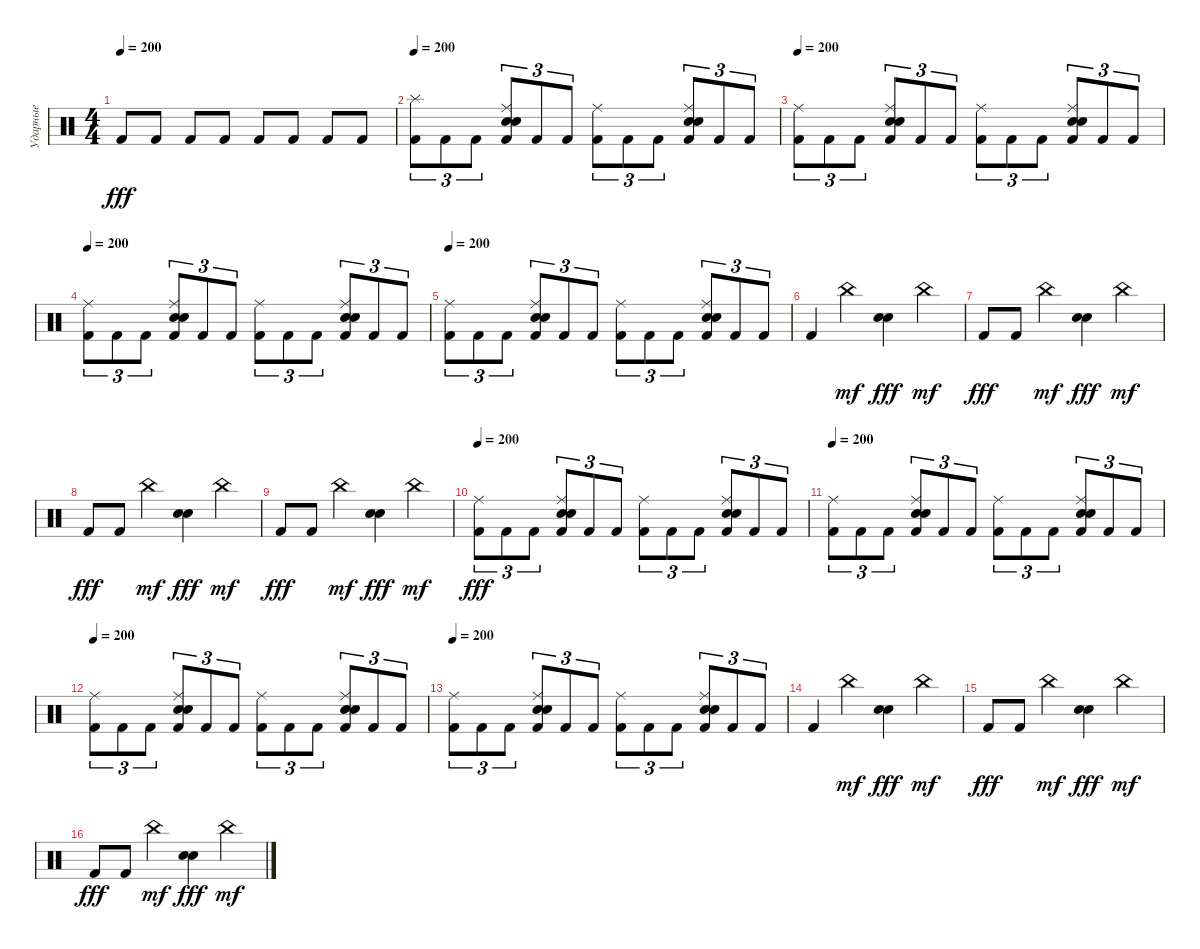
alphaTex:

\track ("Ударные" "Ударные") {instrument percussion}
\staff {score}
\articulation defaults
\ts (4 4)
\tempo 200
\clef neutral
\ks c "Kick (hit) 2".8{dy fff} "Kick (hit) 2".8 "Kick (hit) 2".8 "Kick (hit) 2".8 "Kick (hit) 2".8 "Kick (hit) 2".8 "Kick (hit) 2".8 "Kick (hit) 2".8
|
\tempo 200
("Splash (hit)" "Kick (hit) 2").8{tu (3 2)} "Kick (hit) 2".8{tu (3 2)} "Kick (hit) 2".8{tu (3 2)} ("Ride (middle)" "Snare (hit) 2" "Electric Snare (hit)" "Kick (hit) 2").8{tu (3 2)} "Kick (hit) 2".8{tu (3 2)} "Kick (hit) 2".8{tu (3 2)} ("Ride (middle)" "Kick (hit) 2").8{tu (3 2)} "Kick (hit) 2".8{tu (3 2)} "Kick (hit) 2".8{tu (3 2)} ("Ride (middle)" "Snare (hit) 2" "Electric Snare (hit)" "Kick (hit) 2").8{tu (3 2)} "Kick (hit) 2".8{tu (3 2)} "Kick (hit) 2".8{tu (3 2)} |
\tempo 200
("Ride (middle)" "Kick (hit) 2").8{tu (3 2)} "Kick (hit) 2".8{tu (3 2)} "Kick (hit) 2".8{tu (3 2)} ("Ride (middle)" "Snare (hit) 2" "Electric Snare (hit)" "Kick (hit) 2").8{tu (3 2)} "Kick (hit) 2".8{tu (3 2)} "Kick (hit) 2".8{tu (3 2)} ("Ride (middle)" "Kick (hit) 2").8{tu (3 2)} "Kick (hit) 2".8{tu (3 2)} "Kick (hit) 2".8{tu (3 2)} ("Ride (middle)" "Snare (hit) 2" "Electric Snare (hit)" "Kick (hit) 2").8{tu (3 2)} "Kick (hit) 2".8{tu (3 2)} "Kick (hit) 2".8{tu (3 2)} |
\tempo 200
("Ride (middle)" "Kick (hit) 2").8{tu (3 2)} "Kick (hit) 2".8{tu (3 2)} "Kick (hit) 2".8{tu (3 2)} ("Ride (middle)" "Snare (hit) 2" "Electric Snare (hit)" "Kick (hit) 2").8{tu (3 2)} "Kick (hit) 2".8{tu (3 2)} "Kick (hit) 2".8{tu (3 2)} ("Ride (middle)" "Kick (hit) 2").8{tu (3 2)} "Kick (hit) 2".8{tu (3 2)} "Kick (hit) 2".8{tu (3 2)} ("Ride (middle)" "Snare (hit) 2" "Electric Snare (hit)" "Kick (hit) 2").8{tu (3 2)} "Kick (hit) 2".8{tu (3 2)} "Kick (hit) 2".8{tu (3 2)} |
\tempo 200
("Ride (middle)" "Kick (hit) 2").8{tu (3 2)} "Kick (hit) 2".8{tu (3 2)} "Kick (hit) 2".8{tu (3 2)} ("Ride (middle)" "Snare (hit) 2" "Electric Snare (hit)" "Kick (hit) 2").8{tu (3 2)} "Kick (hit) 2".8{tu (3 2)} "Kick (hit) 2".8{tu (3 2)} ("Ride (middle)" "Kick (hit) 2").8{tu (3 2)} "Kick (hit) 2".8{tu (3 2)} "Kick (hit) 2".8{tu (3 2)} ("Ride (middle)" "Snare (hit) 2" "Electric Snare (hit)" "Kick (hit) 2").8{tu (3 2)} "Kick (hit) 2".8{tu (3 2)} "Kick (hit) 2".8{tu (3 2)} |
"Kick (hit) 2".4 "China (hit)".4{dy mf} ("Snare (hit) 2" "Electric Snare (hit)").4{dy fff} "China (hit)".4{dy mf} |
"Kick (hit) 2".8{dy fff} "Kick (hit) 2".8 "China (hit)".4{dy mf} ("Snare (hit) 2" "Electric Snare (hit)").4{dy fff} "China (hit)".4{dy mf} |
"Kick (hit) 2".8{dy fff} "Kick (hit) 2".8 "China (hit)".4{dy mf} ("Snare (hit) 2" "Electric Snare (hit)").4{dy fff} "China (hit)".4{dy mf} |
"Kick (hit) 2".8{dy fff} "Kick (hit) 2".8 "China (hit)".4{dy mf} ("Snare (hit) 2" "Electric Snare (hit)").4{dy fff} "China (hit)".4{dy mf} |
\tempo 200
("Ride (middle)" "Kick (hit) 2").8{tu (3 2) dy fff} "Kick (hit) 2".8{tu (3 2)} "Kick (hit) 2".8{tu (3 2)} ("Ride (middle)" "Snare (hit) 2" "Electric Snare (hit)" "Kick (hit) 2").8{tu (3 2)} "Kick (hit) 2".8{tu (3 2)} "Kick (hit) 2".8{tu (3 2)} ("Ride (middle)" "Kick (hit) 2").8{tu (3 2)} "Kick (hit) 2".8{tu (3 2)} "Kick (hit) 2".8{tu (3 2)} ("Ride (middle)" "Snare (hit) 2" "Electric Snare (hit)" "Kick (hit) 2").8{tu (3 2)} "Kick (hit) 2".8{tu (3 2)} "Kick (hit) 2".8{tu (3 2)} |
\tempo 200
("Ride (middle)" "Kick (hit) 2").8{tu (3 2)} "Kick (hit) 2".8{tu (3 2)} "Kick (hit) 2".8{tu (3 2)} ("Ride (middle)" "Snare (hit) 2" "Electric Snare (hit)" "Kick (hit) 2").8{tu (3 2)} "Kick (hit) 2".8{tu (3 2)} "Kick (hit) 2".8{tu (3 2)} ("Ride (middle)" "Kick (hit) 2").8{tu (3 2)} "Kick (hit) 2".8{tu (3 2)} "Kick (hit) 2".8{tu (3 2)} ("Ride (middle)" "Snare (hit) 2" "Electric Snare (hit)" "Kick (hit) 2").8{tu (3 2)} "Kick (hit) 2".8{tu (3 2)} "Kick (hit) 2".8{tu (3 2)} |
\tempo 200
("Ride (middle)" "Kick (hit) 2").8{tu (3 2)} "Kick (hit) 2".8{tu (3 2)} "Kick (hit) 2".8{tu (3 2)} ("Ride (middle)" "Snare (hit) 2" "Electric Snare (hit)" "Kick (hit) 2").8{tu (3 2)} "Kick (hit) 2".8{tu (3 2)} "Kick (hit) 2".8{tu (3 2)} ("Ride (middle)" "Kick (hit) 2").8{tu (3 2)} "Kick (hit) 2".8{tu (3 2)} "Kick (hit) 2".8{tu (3 2)} ("Ride (middle)" "Snare (hit) 2" "Electric Snare (hit)" "Kick (hit) 2").8{tu (3 2)} "Kick (hit) 2".8{tu (3 2)} "Kick (hit) 2".8{tu (3 2)} |
\tempo 200
("Ride (middle)" "Kick (hit) 2").8{tu (3 2)} "Kick (hit) 2".8{tu (3 2)} "Kick (hit) 2".8{tu (3 2)} ("Ride (middle)" "Snare (hit) 2" "Electric Snare (hit)" "Kick (hit) 2").8{tu (3 2)} "Kick (hit) 2".8{tu (3 2)} "Kick (hit) 2".8{tu (3 2)} ("Ride (middle)" "Kick (hit) 2").8{tu (3 2)} "Kick (hit) 2".8{tu (3 2)} "Kick (hit) 2".8{tu (3 2)} ("Ride (middle)" "Snare (hit) 2" "Electric Snare (hit)" "Kick (hit) 2").8{tu (3 2)} "Kick (hit) 2".8{tu (3 2)} "Kick (hit) 2".8{tu (3 2)} |
"Kick (hit) 2".4 "China (hit)".4{dy mf} ("Snare (hit) 2" "Electric Snare (hit)").4{dy fff} "China (hit)".4{dy mf} |
"Kick (hit) 2".8{dy fff} "Kick (hit) 2".8 "China (hit)".4{dy mf} ("Snare (hit) 2" "Electric Snare (hit)").4{dy fff} "China (hit)".4{dy mf} |
"Kick (hit) 2".8{dy fff} "Kick (hit) 2".8 "China (hit)".4{dy mf} ("Snare (hit) 2" "Electric Snare (hit)").4{dy fff} "China (hit)".4{dy mf}
